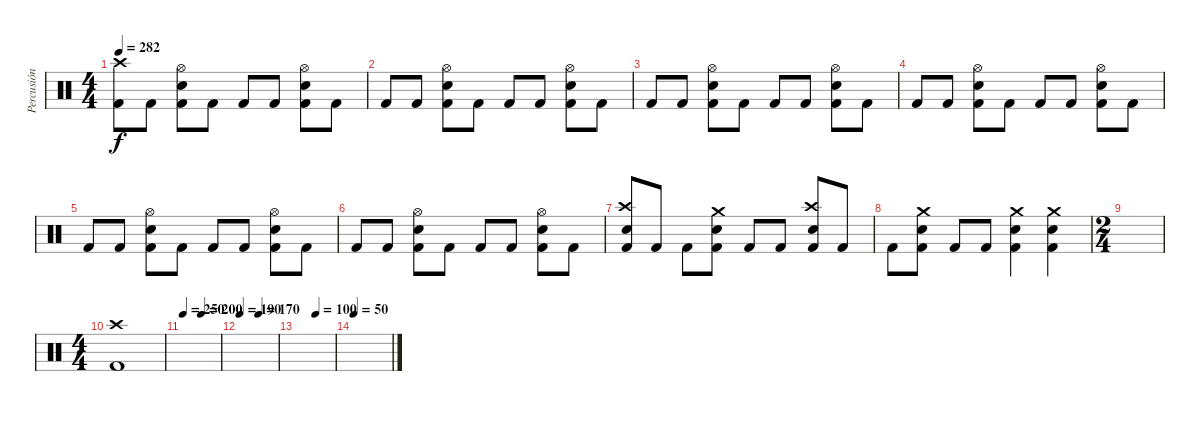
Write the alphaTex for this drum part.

\track ("Percusión" "Percusión") {instrument percussion}
\staff {score}
\articulation defaults
\ts (4 4)
\tempo 282
\clef neutral
\ks c
("Kick (hit) 2" "Crash high (hit)").8{dy f} "Kick (hit) 2".8 ("Kick (hit) 2" "Snare (hit) 2" "Hi-Hat (open)").8 "Kick (hit) 2".8 "Kick (hit) 2".8 "Kick (hit) 2".8 ("Kick (hit) 2" "Snare (hit) 2" "Hi-Hat (open)").8 "Kick (hit) 2".8 |
"Kick (hit) 2".8 "Kick (hit) 2".8 ("Kick (hit) 2" "Snare (hit) 2" "Hi-Hat (open)").8 "Kick (hit) 2".8 "Kick (hit) 2".8 "Kick (hit) 2".8 ("Kick (hit) 2" "Snare (hit) 2" "Hi-Hat (open)").8 "Kick (hit) 2".8 |
"Kick (hit) 2".8 "Kick (hit) 2".8 ("Kick (hit) 2" "Snare (hit) 2" "Hi-Hat (open)").8 "Kick (hit) 2".8 "Kick (hit) 2".8 "Kick (hit) 2".8 ("Kick (hit) 2" "Snare (hit) 2" "Hi-Hat (open)").8 "Kick (hit) 2".8 |
"Kick (hit) 2".8 "Kick (hit) 2".8 ("Kick (hit) 2" "Snare (hit) 2" "Hi-Hat (open)").8 "Kick (hit) 2".8 "Kick (hit) 2".8 "Kick (hit) 2".8 ("Kick (hit) 2" "Snare (hit) 2" "Hi-Hat (open)").8 "Kick (hit) 2".8 |
"Kick (hit) 2".8 "Kick (hit) 2".8 ("Kick (hit) 2" "Snare (hit) 2" "Hi-Hat (open)").8 "Kick (hit) 2".8 "Kick (hit) 2".8 "Kick (hit) 2".8 ("Kick (hit) 2" "Snare (hit) 2" "Hi-Hat (open)").8 "Kick (hit) 2".8 |
"Kick (hit) 2".8 "Kick (hit) 2".8 ("Kick (hit) 2" "Snare (hit) 2" "Hi-Hat (open)").8 "Kick (hit) 2".8 "Kick (hit) 2".8 "Kick (hit) 2".8 ("Kick (hit) 2" "Snare (hit) 2" "Hi-Hat (open)").8 "Kick (hit) 2".8 |
("Kick (hit) 2" "Snare (hit) 2" "Crash high (hit)").8 "Kick (hit) 2".8 "Kick (hit) 2".8 ("Kick (hit) 2" "Snare (hit) 2" "Crash medium (hit)").8 "Kick (hit) 2".8 "Kick (hit) 2".8 ("Kick (hit) 2" "Snare (hit) 2" "Crash high (hit)").8 "Kick (hit) 2".8 |
"Kick (hit) 2".8 ("Kick (hit) 2" "Snare (hit) 2" "Crash medium (hit)").8 "Kick (hit) 2".8 "Kick (hit) 2".8 ("Kick (hit) 2" "Snare (hit) 2" "Crash medium (hit)").4 ("Kick (hit) 2" "Snare (hit) 2" "Crash medium (hit)").4 |
\ts (2 4)
|
\ts (4 4)
("Kick (hit) 2" "Crash high (hit)").1 |
\tempo 250
\tempo (200 0.5)
|
\tempo 190
\tempo (170 0.5)
|
\tempo (100 0.5)
|
\tempo 50
